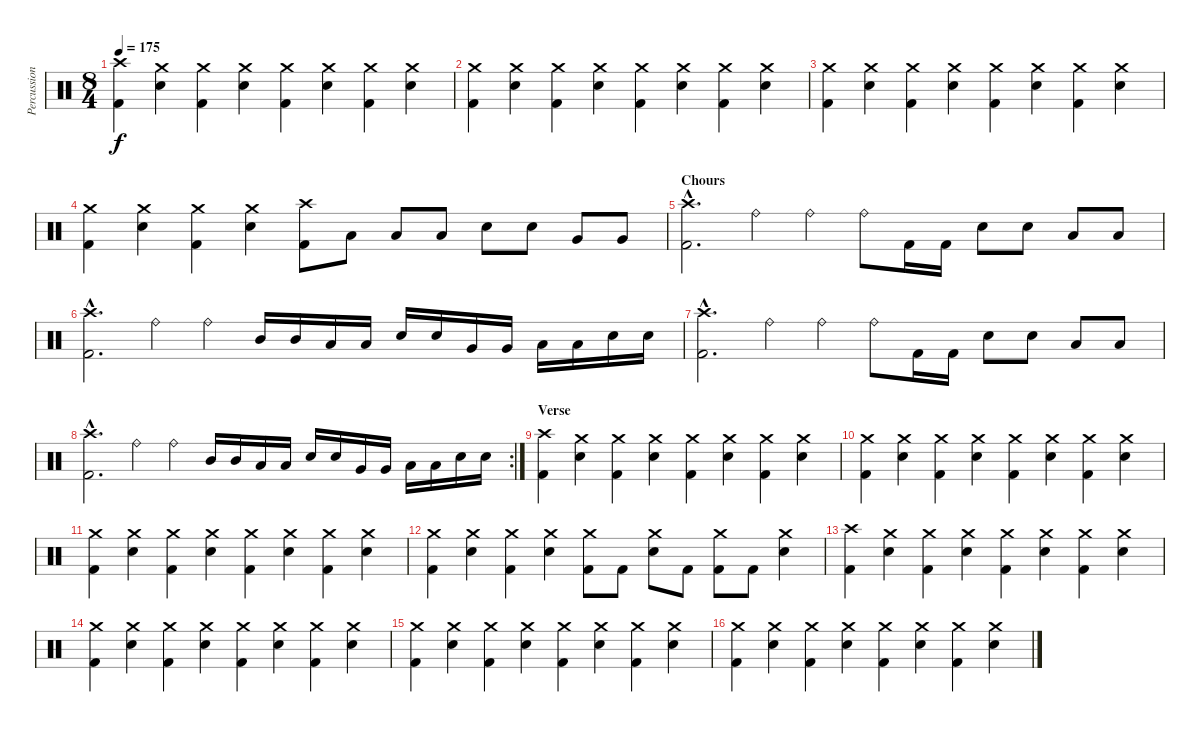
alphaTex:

\track ("Percussion" "Percussion") {instrument percussion}
\staff {score}
\articulation defaults
\ts (8 4)
\tempo 175
\clef neutral
\ks c
("Kick (hit) 2" "Crash high (hit)").4{dy f} ("Electric Snare (hit)" "Crash medium (hit)").4 ("Kick (hit) 2" "Crash medium (hit)").4 ("Electric Snare (hit)" "Crash medium (hit)").4 ("Kick (hit) 2" "Crash medium (hit)").4 ("Electric Snare (hit)" "Crash medium (hit)").4 ("Kick (hit) 2" "Crash medium (hit)").4 ("Electric Snare (hit)" "Crash medium (hit)").4 |
("Kick (hit) 2" "Crash medium (hit)").4 ("Electric Snare (hit)" "Crash medium (hit)").4 ("Kick (hit) 2" "Crash medium (hit)").4 ("Electric Snare (hit)" "Crash medium (hit)").4 ("Kick (hit) 2" "Crash medium (hit)").4 ("Electric Snare (hit)" "Crash medium (hit)").4 ("Kick (hit) 2" "Crash medium (hit)").4 ("Electric Snare (hit)" "Crash medium (hit)").4 |
("Kick (hit) 2" "Crash medium (hit)").4 ("Electric Snare (hit)" "Crash medium (hit)").4 ("Kick (hit) 2" "Crash medium (hit)").4 ("Electric Snare (hit)" "Crash medium (hit)").4 ("Kick (hit) 2" "Crash medium (hit)").4 ("Electric Snare (hit)" "Crash medium (hit)").4 ("Kick (hit) 2" "Crash medium (hit)").4 ("Electric Snare (hit)" "Crash medium (hit)").4 |
("Kick (hit) 2" "Crash medium (hit)").4 ("Electric Snare (hit)" "Crash medium (hit)").4 ("Kick (hit) 2" "Crash medium (hit)").4 ("Electric Snare (hit)" "Crash medium (hit)").4 ("Kick (hit) 2" "Crash high (hit)").8 "Low Tom (hit)".8 "Low Tom (hit)".8 "Low Tom (hit)".8 "Electric Snare (hit)".8 "Electric Snare (hit)".8 "Very Low Tom (hit)".8 "Very Low Tom (hit)".8 |
\section ("" "Chours")
("Crash high (hit)"{hac} "Kick (hit) 2"{hac}).2{d} "Ride (bell)".4 "Ride (bell)".4 "Ride (bell)".8 "Kick (hit) 2".16 "Kick (hit) 2".16 "Electric Snare (hit)".8 "Electric Snare (hit)".8 "Low Floor Tom (hit)".8 "Low Floor Tom (hit)".8 |
("Crash high (hit)"{hac} "Kick (hit) 2"{hac}).2{d} "Ride (bell)".4 "Ride (bell)".4 "Mid Tom (hit)".16 "Mid Tom (hit)".16 "Low Tom (hit)".16 "Low Tom (hit)".16 "Electric Snare (hit)".16 "Electric Snare (hit)".16 "Very Low Tom (hit)".16 "Very Low Tom (hit)".16 "Low Floor Tom (hit)".16 "Low Floor Tom (hit)".16 "Electric Snare (hit)".16 "Electric Snare (hit)".16 |
("Crash high (hit)"{hac} "Kick (hit) 2"{hac}).2{d} "Ride (bell)".4 "Ride (bell)".4 "Ride (bell)".8 "Kick (hit) 2".16 "Kick (hit) 2".16 "Electric Snare (hit)".8 "Electric Snare (hit)".8 "Low Floor Tom (hit)".8 "Low Floor Tom (hit)".8 |
\rc 2
("Crash high (hit)"{hac} "Kick (hit) 2"{hac}).2{d} "Ride (bell)".4 "Ride (bell)".4 "Mid Tom (hit)".16 "Mid Tom (hit)".16 "Low Tom (hit)".16 "Low Tom (hit)".16 "Electric Snare (hit)".16 "Electric Snare (hit)".16 "Very Low Tom (hit)".16 "Very Low Tom (hit)".16 "Low Floor Tom (hit)".16 "Low Floor Tom (hit)".16 "Electric Snare (hit)".16 "Electric Snare (hit)".16 |
\section ("" "Verse")
("Kick (hit) 2" "Crash high (hit)").4 ("Electric Snare (hit)" "Crash medium (hit)").4 ("Kick (hit) 2" "Crash medium (hit)").4 ("Electric Snare (hit)" "Crash medium (hit)").4 ("Kick (hit) 2" "Crash medium (hit)").4 ("Electric Snare (hit)" "Crash medium (hit)").4 ("Kick (hit) 2" "Crash medium (hit)").4 ("Electric Snare (hit)" "Crash medium (hit)").4 |
("Kick (hit) 2" "Crash medium (hit)").4 ("Electric Snare (hit)" "Crash medium (hit)").4 ("Kick (hit) 2" "Crash medium (hit)").4 ("Electric Snare (hit)" "Crash medium (hit)").4 ("Kick (hit) 2" "Crash medium (hit)").4 ("Electric Snare (hit)" "Crash medium (hit)").4 ("Kick (hit) 2" "Crash medium (hit)").4 ("Electric Snare (hit)" "Crash medium (hit)").4 |
("Kick (hit) 2" "Crash medium (hit)").4 ("Electric Snare (hit)" "Crash medium (hit)").4 ("Kick (hit) 2" "Crash medium (hit)").4 ("Electric Snare (hit)" "Crash medium (hit)").4 ("Kick (hit) 2" "Crash medium (hit)").4 ("Electric Snare (hit)" "Crash medium (hit)").4 ("Kick (hit) 2" "Crash medium (hit)").4 ("Electric Snare (hit)" "Crash medium (hit)").4 |
("Kick (hit) 2" "Crash medium (hit)").4 ("Electric Snare (hit)" "Crash medium (hit)").4 ("Kick (hit) 2" "Crash medium (hit)").4 ("Electric Snare (hit)" "Crash medium (hit)").4 ("Kick (hit) 2" "Crash medium (hit)").8 "Kick (hit) 2".8 ("Electric Snare (hit)" "Crash medium (hit)").8 "Kick (hit) 2".8 ("Kick (hit) 2" "Crash medium (hit)").8 "Kick (hit) 2".8 ("Electric Snare (hit)" "Crash medium (hit)").4 |
("Kick (hit) 2" "Crash high (hit)").4 ("Electric Snare (hit)" "Crash medium (hit)").4 ("Kick (hit) 2" "Crash medium (hit)").4 ("Electric Snare (hit)" "Crash medium (hit)").4 ("Kick (hit) 2" "Crash medium (hit)").4 ("Electric Snare (hit)" "Crash medium (hit)").4 ("Kick (hit) 2" "Crash medium (hit)").4 ("Electric Snare (hit)" "Crash medium (hit)").4 |
("Kick (hit) 2" "Crash medium (hit)").4 ("Electric Snare (hit)" "Crash medium (hit)").4 ("Kick (hit) 2" "Crash medium (hit)").4 ("Electric Snare (hit)" "Crash medium (hit)").4 ("Kick (hit) 2" "Crash medium (hit)").4 ("Electric Snare (hit)" "Crash medium (hit)").4 ("Kick (hit) 2" "Crash medium (hit)").4 ("Electric Snare (hit)" "Crash medium (hit)").4 |
("Kick (hit) 2" "Crash medium (hit)").4 ("Electric Snare (hit)" "Crash medium (hit)").4 ("Kick (hit) 2" "Crash medium (hit)").4 ("Electric Snare (hit)" "Crash medium (hit)").4 ("Kick (hit) 2" "Crash medium (hit)").4 ("Electric Snare (hit)" "Crash medium (hit)").4 ("Kick (hit) 2" "Crash medium (hit)").4 ("Electric Snare (hit)" "Crash medium (hit)").4 |
("Kick (hit) 2" "Crash medium (hit)").4 ("Electric Snare (hit)" "Crash medium (hit)").4 ("Kick (hit) 2" "Crash medium (hit)").4 ("Electric Snare (hit)" "Crash medium (hit)").4 ("Kick (hit) 2" "Crash medium (hit)").4 ("Electric Snare (hit)" "Crash medium (hit)").4 ("Kick (hit) 2" "Crash medium (hit)").4 ("Electric Snare (hit)" "Crash medium (hit)").4
